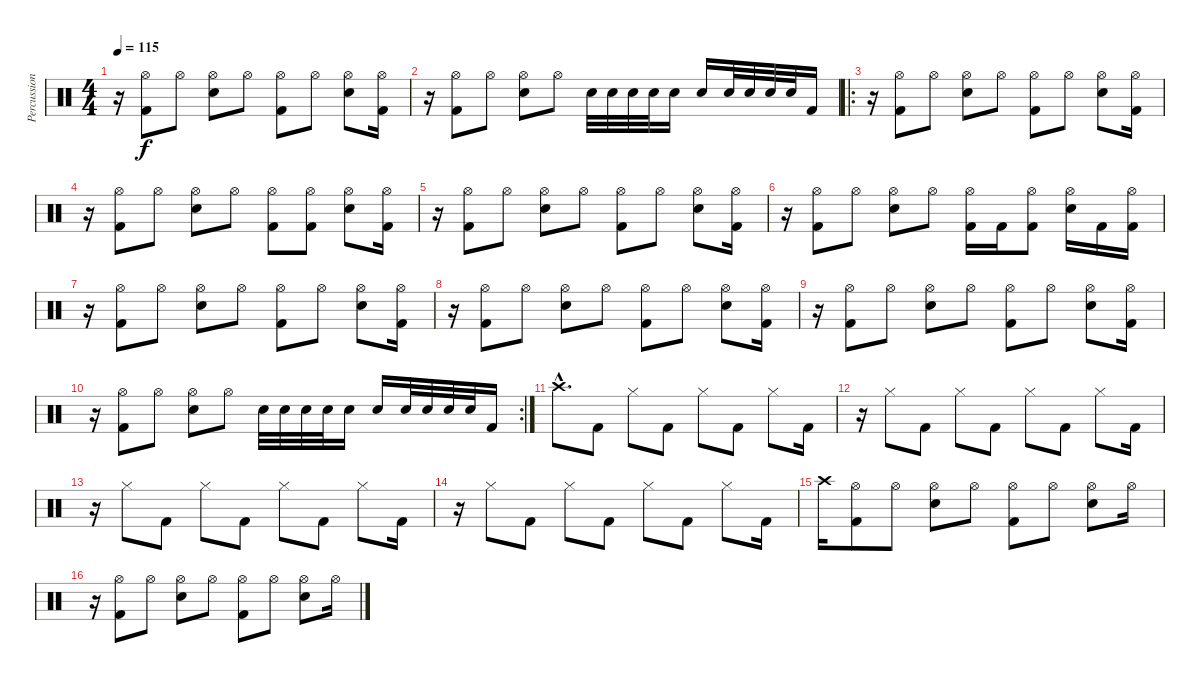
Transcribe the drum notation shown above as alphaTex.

\track ("Percussion" "Percussion") {instrument percussion}
\staff {score}
\articulation defaults
\ts (4 4)
\tempo 115
\clef neutral
\ks c
r.16{dy f} ("Hi-Hat (open)" "Kick (hit) 2").8 "Hi-Hat (open)".8 ("Hi-Hat (open)" "Snare (hit) 2").8 "Hi-Hat (open)".8 ("Hi-Hat (open)" "Kick (hit) 2").8 "Hi-Hat (open)".8 ("Hi-Hat (open)" "Snare (hit) 2").8 ("Hi-Hat (open)" "Kick (hit) 2").16 |
r.16 ("Hi-Hat (open)" "Kick (hit) 2").8 "Hi-Hat (open)".8 ("Hi-Hat (open)" "Snare (hit) 2").8 "Hi-Hat (open)".8 "Snare (hit) 2".32 "Snare (hit) 2".32 "Snare (hit) 2".32 "Snare (hit) 2".32 "Snare (hit) 2".16 "Snare (hit) 2".16 "Snare (hit) 2".32 "Snare (hit) 2".32 "Snare (hit) 2".32 "Snare (hit) 2".32 "Kick (hit) 2".16 |
\ro
r.16 ("Hi-Hat (open)" "Kick (hit) 2").8 "Hi-Hat (open)".8 ("Hi-Hat (open)" "Snare (hit) 2").8 "Hi-Hat (open)".8 ("Hi-Hat (open)" "Kick (hit) 2").8 "Hi-Hat (open)".8 ("Hi-Hat (open)" "Snare (hit) 2").8 ("Hi-Hat (open)" "Kick (hit) 2").16 |
r.16 ("Hi-Hat (open)" "Kick (hit) 2").8 "Hi-Hat (open)".8 ("Hi-Hat (open)" "Snare (hit) 2").8 "Hi-Hat (open)".8 ("Hi-Hat (open)" "Kick (hit) 2").8 ("Hi-Hat (open)" "Kick (hit) 2").8 ("Hi-Hat (open)" "Snare (hit) 2").8 ("Hi-Hat (open)" "Kick (hit) 2").16 |
r.16 ("Hi-Hat (open)" "Kick (hit) 2").8 "Hi-Hat (open)".8 ("Hi-Hat (open)" "Snare (hit) 2").8 "Hi-Hat (open)".8 ("Hi-Hat (open)" "Kick (hit) 2").8 "Hi-Hat (open)".8 ("Hi-Hat (open)" "Snare (hit) 2").8 ("Hi-Hat (open)" "Kick (hit) 2").16 |
r.16 ("Hi-Hat (open)" "Kick (hit) 2").8 "Hi-Hat (open)".8 ("Hi-Hat (open)" "Snare (hit) 2").8 "Hi-Hat (open)".8 ("Hi-Hat (open)" "Kick (hit) 2").16 "Kick (hit) 2".16 ("Hi-Hat (open)" "Kick (hit) 2").8 ("Hi-Hat (open)" "Snare (hit) 2").16 "Kick (hit) 2".16 ("Hi-Hat (open)" "Kick (hit) 2").16 |
r.16 ("Hi-Hat (open)" "Kick (hit) 2").8 "Hi-Hat (open)".8 ("Hi-Hat (open)" "Snare (hit) 2").8 "Hi-Hat (open)".8 ("Hi-Hat (open)" "Kick (hit) 2").8 "Hi-Hat (open)".8 ("Hi-Hat (open)" "Snare (hit) 2").8 ("Hi-Hat (open)" "Kick (hit) 2").16 |
r.16 ("Hi-Hat (open)" "Kick (hit) 2").8 "Hi-Hat (open)".8 ("Hi-Hat (open)" "Snare (hit) 2").8 "Hi-Hat (open)".8 ("Hi-Hat (open)" "Kick (hit) 2").8 "Hi-Hat (open)".8 ("Hi-Hat (open)" "Snare (hit) 2").8 ("Hi-Hat (open)" "Kick (hit) 2").16 |
r.16 ("Hi-Hat (open)" "Kick (hit) 2").8 "Hi-Hat (open)".8 ("Hi-Hat (open)" "Snare (hit) 2").8 "Hi-Hat (open)".8 ("Hi-Hat (open)" "Kick (hit) 2").8 "Hi-Hat (open)".8 ("Hi-Hat (open)" "Snare (hit) 2").8 ("Hi-Hat (open)" "Kick (hit) 2").16 |
\rc 2
r.16 ("Hi-Hat (open)" "Kick (hit) 2").8 "Hi-Hat (open)".8 ("Hi-Hat (open)" "Snare (hit) 2").8 "Hi-Hat (open)".8 "Snare (hit) 2".32 "Snare (hit) 2".32 "Snare (hit) 2".32 "Snare (hit) 2".32 "Snare (hit) 2".16 "Snare (hit) 2".16 "Snare (hit) 2".32 "Snare (hit) 2".32 "Snare (hit) 2".32 "Snare (hit) 2".32 "Kick (hit) 2".16 |
"Crash high (hit)"{hac}.8{d} "Kick (hit) 2".8 "Hi-Hat (closed)".8 "Kick (hit) 2".8 "Hi-Hat (closed)".8 "Kick (hit) 2".8 "Hi-Hat (closed)".8 "Kick (hit) 2".16 |
r.16 "Hi-Hat (closed)".8 "Kick (hit) 2".8 "Hi-Hat (closed)".8 "Kick (hit) 2".8 "Hi-Hat (closed)".8 "Kick (hit) 2".8 "Hi-Hat (closed)".8 "Kick (hit) 2".16 |
r.16 "Hi-Hat (closed)".8 "Kick (hit) 2".8 "Hi-Hat (closed)".8 "Kick (hit) 2".8 "Hi-Hat (closed)".8 "Kick (hit) 2".8 "Hi-Hat (closed)".8 "Kick (hit) 2".16 |
r.16 "Hi-Hat (closed)".8 "Kick (hit) 2".8 "Hi-Hat (closed)".8 "Kick (hit) 2".8 "Hi-Hat (closed)".8 "Kick (hit) 2".8 "Hi-Hat (closed)".8 "Kick (hit) 2".16 |
"Crash high (hit)".16 ("Hi-Hat (open)" "Kick (hit) 2").8 "Hi-Hat (open)".8 ("Hi-Hat (open)" "Snare (hit) 2").8 "Hi-Hat (open)".8 ("Hi-Hat (open)" "Kick (hit) 2").8 "Hi-Hat (open)".8 ("Hi-Hat (open)" "Snare (hit) 2").8 "Hi-Hat (open)".16 |
r.16 ("Hi-Hat (open)" "Kick (hit) 2").8 "Hi-Hat (open)".8 ("Hi-Hat (open)" "Snare (hit) 2").8 "Hi-Hat (open)".8 ("Hi-Hat (open)" "Kick (hit) 2").8 "Hi-Hat (open)".8 ("Hi-Hat (open)" "Snare (hit) 2").8 "Hi-Hat (open)".16
